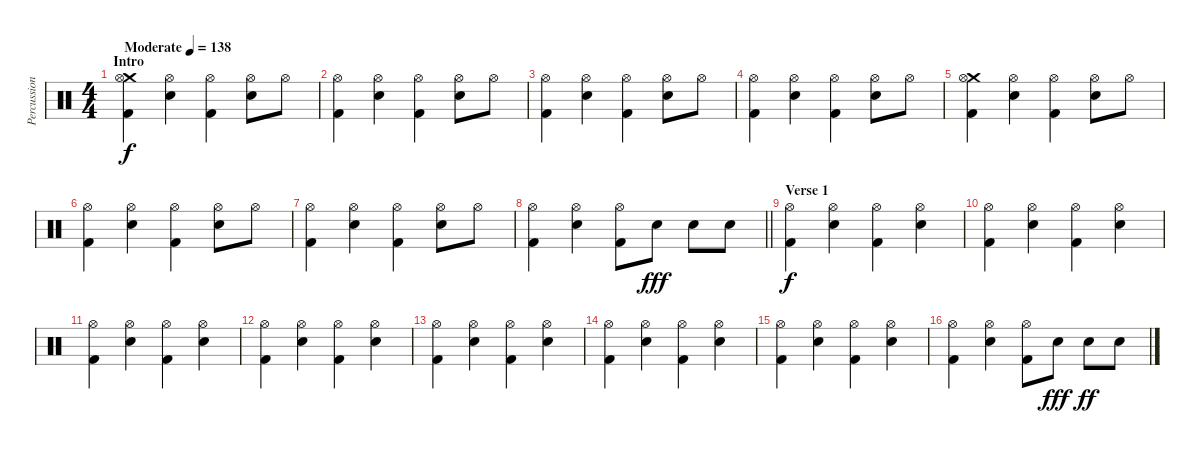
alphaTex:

\track ("Percussion" "Percussion") {instrument percussion}
\staff {score}
\articulation defaults
\ts (4 4)
\section ("" "Intro")
\tempo (138 "Moderate")
\clef neutral
\ks c
("Crash medium (hit)" "Hi-Hat (open)" "Kick (hit) 2").4{dy f} ("Snare (hit) 2" "Hi-Hat (open)").4 ("Hi-Hat (open)" "Kick (hit) 2").4 ("Snare (hit) 2" "Hi-Hat (open)").8 "Hi-Hat (open)".8 |
("Hi-Hat (open)" "Kick (hit) 2").4 ("Snare (hit) 2" "Hi-Hat (open)").4 ("Hi-Hat (open)" "Kick (hit) 2").4 ("Snare (hit) 2" "Hi-Hat (open)").8 "Hi-Hat (open)".8 |
("Hi-Hat (open)" "Kick (hit) 2").4 ("Snare (hit) 2" "Hi-Hat (open)").4 ("Hi-Hat (open)" "Kick (hit) 2").4 ("Snare (hit) 2" "Hi-Hat (open)").8 "Hi-Hat (open)".8 |
("Hi-Hat (open)" "Kick (hit) 2").4 ("Snare (hit) 2" "Hi-Hat (open)").4 ("Hi-Hat (open)" "Kick (hit) 2").4 ("Snare (hit) 2" "Hi-Hat (open)").8 "Hi-Hat (open)".8 |
("Crash medium (hit)" "Hi-Hat (open)" "Kick (hit) 2").4 ("Snare (hit) 2" "Hi-Hat (open)").4 ("Hi-Hat (open)" "Kick (hit) 2").4 ("Snare (hit) 2" "Hi-Hat (open)").8 "Hi-Hat (open)".8 |
("Hi-Hat (open)" "Kick (hit) 2").4 ("Snare (hit) 2" "Hi-Hat (open)").4 ("Hi-Hat (open)" "Kick (hit) 2").4 ("Snare (hit) 2" "Hi-Hat (open)").8 "Hi-Hat (open)".8 |
("Hi-Hat (open)" "Kick (hit) 2").4 ("Snare (hit) 2" "Hi-Hat (open)").4 ("Hi-Hat (open)" "Kick (hit) 2").4 ("Snare (hit) 2" "Hi-Hat (open)").8 "Hi-Hat (open)".8 |
\barLineRight lightlight
("Hi-Hat (open)" "Kick (hit) 2").4 ("Snare (hit) 2" "Hi-Hat (open)").4 ("Hi-Hat (open)" "Kick (hit) 2").8 "Snare (hit) 2".8{dy fff} "Snare (hit) 2".8 "Snare (hit) 2".8 |
\section ("" "Verse 1")
("Hi-Hat (open)" "Kick (hit) 2").4{dy f} ("Snare (hit) 2" "Hi-Hat (open)").4 ("Hi-Hat (open)" "Kick (hit) 2").4 ("Snare (hit) 2" "Hi-Hat (open)").4 |
("Hi-Hat (open)" "Kick (hit) 2").4 ("Snare (hit) 2" "Hi-Hat (open)").4 ("Hi-Hat (open)" "Kick (hit) 2").4 ("Snare (hit) 2" "Hi-Hat (open)").4 |
("Hi-Hat (open)" "Kick (hit) 2").4 ("Snare (hit) 2" "Hi-Hat (open)").4 ("Hi-Hat (open)" "Kick (hit) 2").4 ("Snare (hit) 2" "Hi-Hat (open)").4 |
("Hi-Hat (open)" "Kick (hit) 2").4 ("Snare (hit) 2" "Hi-Hat (open)").4 ("Hi-Hat (open)" "Kick (hit) 2").4 ("Snare (hit) 2" "Hi-Hat (open)").4 |
("Hi-Hat (open)" "Kick (hit) 2").4 ("Snare (hit) 2" "Hi-Hat (open)").4 ("Hi-Hat (open)" "Kick (hit) 2").4 ("Snare (hit) 2" "Hi-Hat (open)").4 |
("Hi-Hat (open)" "Kick (hit) 2").4 ("Snare (hit) 2" "Hi-Hat (open)").4 ("Hi-Hat (open)" "Kick (hit) 2").4 ("Snare (hit) 2" "Hi-Hat (open)").4 |
("Hi-Hat (open)" "Kick (hit) 2").4 ("Snare (hit) 2" "Hi-Hat (open)").4 ("Hi-Hat (open)" "Kick (hit) 2").4 ("Snare (hit) 2" "Hi-Hat (open)").4 |
("Hi-Hat (open)" "Kick (hit) 2").4 ("Snare (hit) 2" "Hi-Hat (open)").4 ("Hi-Hat (open)" "Kick (hit) 2").8 "Snare (hit) 2".8{dy fff} "Snare (hit) 2".8{dy ff} "Snare (hit) 2".8
